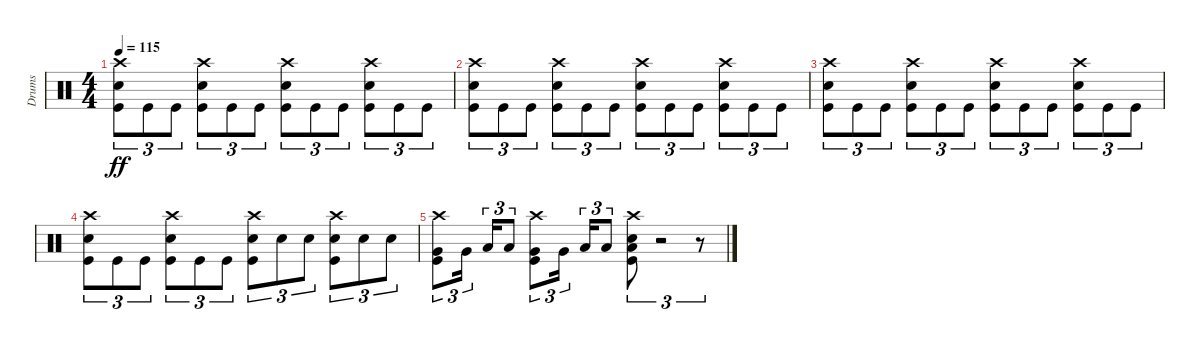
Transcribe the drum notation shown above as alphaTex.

\track ("Drums" "Drums") {instrument percussion}
\staff {score}
\articulation defaults
\ts (4 4)
\tempo 115
\clef neutral
\ks c
("Crash high (hit)" "Snare (hit) 2" "Kick (hit)").8{tu (3 2) dy ff} "Kick (hit)".8{tu (3 2)} "Kick (hit)".8{tu (3 2)} ("Crash high (hit)" "Snare (hit) 2" "Kick (hit)").8{tu (3 2)} "Kick (hit)".8{tu (3 2)} "Kick (hit)".8{tu (3 2)} ("Crash high (hit)" "Snare (hit) 2" "Kick (hit)").8{tu (3 2)} "Kick (hit)".8{tu (3 2)} "Kick (hit)".8{tu (3 2)} ("Crash high (hit)" "Snare (hit) 2" "Kick (hit)").8{tu (3 2)} "Kick (hit)".8{tu (3 2)} "Kick (hit)".8{tu (3 2)} |
("Crash high (hit)" "Snare (hit) 2" "Kick (hit)").8{tu (3 2)} "Kick (hit)".8{tu (3 2)} "Kick (hit)".8{tu (3 2)} ("Crash high (hit)" "Snare (hit) 2" "Kick (hit)").8{tu (3 2)} "Kick (hit)".8{tu (3 2)} "Kick (hit)".8{tu (3 2)} ("Crash high (hit)" "Snare (hit) 2" "Kick (hit)").8{tu (3 2)} "Kick (hit)".8{tu (3 2)} "Kick (hit)".8{tu (3 2)} ("Crash high (hit)" "Snare (hit) 2" "Kick (hit)").8{tu (3 2)} "Kick (hit)".8{tu (3 2)} "Kick (hit)".8{tu (3 2)} |
("Crash high (hit)" "Snare (hit) 2" "Kick (hit)").8{tu (3 2)} "Kick (hit)".8{tu (3 2)} "Kick (hit)".8{tu (3 2)} ("Crash high (hit)" "Snare (hit) 2" "Kick (hit)").8{tu (3 2)} "Kick (hit)".8{tu (3 2)} "Kick (hit)".8{tu (3 2)} ("Crash high (hit)" "Snare (hit) 2" "Kick (hit)").8{tu (3 2)} "Kick (hit)".8{tu (3 2)} "Kick (hit)".8{tu (3 2)} ("Crash high (hit)" "Snare (hit) 2" "Kick (hit)").8{tu (3 2)} "Kick (hit)".8{tu (3 2)} "Kick (hit)".8{tu (3 2)} |
("Crash high (hit)" "Snare (hit) 2" "Kick (hit)").8{tu (3 2)} "Kick (hit)".8{tu (3 2)} "Kick (hit)".8{tu (3 2)} ("Crash high (hit)" "Snare (hit) 2" "Kick (hit)").8{tu (3 2)} "Kick (hit)".8{tu (3 2)} "Kick (hit)".8{tu (3 2)} ("Crash high (hit)" "Snare (hit) 2" "Kick (hit)").8{tu (3 2)} "Snare (hit) 2".8{tu (3 2)} "Snare (hit) 2".8{tu (3 2)} ("Crash high (hit)" "Snare (hit) 2" "Kick (hit)").8{tu (3 2)} "Snare (hit) 2".8{tu (3 2)} "Snare (hit) 2".8{tu (3 2)} |
("Crash high (hit)" "Very Low Tom (hit)" "Kick (hit)").8{tu (3 2)} "Very Low Tom (hit)".16{tu (3 2) beam splitsecondary} "Low Floor Tom (hit)".16{tu (3 2)} "Low Floor Tom (hit)".8{tu (3 2)} ("Crash high (hit)" "Very Low Tom (hit)" "Kick (hit)").8{tu (3 2)} "Very Low Tom (hit)".16{tu (3 2) beam splitsecondary} "Low Floor Tom (hit)".16{tu (3 2)} "Low Floor Tom (hit)".8{tu (3 2)} ("Crash high (hit)" "Snare (hit) 2" "Low Floor Tom (hit)" "Kick (hit)").8{tu (3 2)} r.2{tu (3 2) volume 0} r.8{tu (3 2)}
